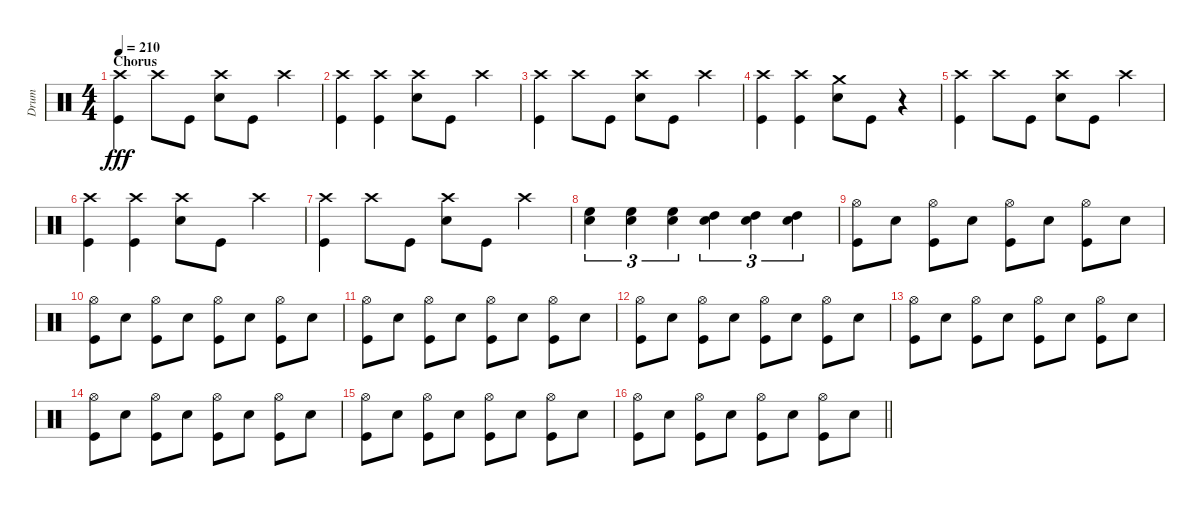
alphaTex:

\track ("Drum" "Drum") {instrument percussion}
\staff
\articulation defaults
\ts (4 4)
\section ("" "Chorus")
\tempo 210
\clef neutral
\ks c
("Crash high (hit)" "Kick (hit)").4{dy fff} "Crash high (hit)".8 "Kick (hit)".8 ("Crash high (hit)" "Snare (hit) 2").8 "Kick (hit)".8 "Crash high (hit)".4 |
("Crash high (hit)" "Kick (hit)").4 ("Crash high (hit)" "Kick (hit)").4 ("Crash high (hit)" "Snare (hit) 2").8 "Kick (hit)".8 "Crash high (hit)".4 |
("Crash high (hit)" "Kick (hit)").4 "Crash high (hit)".8 "Kick (hit)".8 ("Crash high (hit)" "Snare (hit) 2").8 "Kick (hit)".8 "Crash high (hit)".4 |
("Crash high (hit)" "Kick (hit)").4 ("Crash high (hit)" "Kick (hit)").4 ("Crash medium (hit)" "Snare (hit) 2").8 "Kick (hit)".8 r.4 |
("Crash high (hit)" "Kick (hit)").4 "Crash high (hit)".8 "Kick (hit)".8 ("Crash high (hit)" "Snare (hit) 2").8 "Kick (hit)".8 "Crash high (hit)".4 |
("Crash high (hit)" "Kick (hit)").4 ("Crash high (hit)" "Kick (hit)").4 ("Crash high (hit)" "Snare (hit) 2").8 "Kick (hit)".8 "Crash high (hit)".4 |
("Crash high (hit)" "Kick (hit)").4 "Crash high (hit)".8 "Kick (hit)".8 ("Crash high (hit)" "Snare (hit) 2").8 "Kick (hit)".8 "Crash high (hit)".4 |
("High Floor Tom (hit)" "Snare (hit) 2").4{tu (3 2)} ("High Floor Tom (hit)" "Snare (hit) 2").4{tu (3 2)} ("High Floor Tom (hit)" "Snare (hit) 2").4{tu (3 2)} ("High Tom (hit)" "Snare (hit) 2").4{tu (3 2)} ("High Tom (hit)" "Snare (hit) 2").4{tu (3 2)} ("High Tom (hit)" "Snare (hit) 2").4{tu (3 2)} |
("Hi-Hat (open)" "Kick (hit)").8 "Snare (hit) 2".8 ("Hi-Hat (open)" "Kick (hit)").8 "Snare (hit) 2".8 ("Hi-Hat (open)" "Kick (hit)").8 "Snare (hit) 2".8 ("Hi-Hat (open)" "Kick (hit)").8 "Snare (hit) 2".8 |
("Hi-Hat (open)" "Kick (hit)").8 "Snare (hit) 2".8 ("Hi-Hat (open)" "Kick (hit)").8 "Snare (hit) 2".8 ("Hi-Hat (open)" "Kick (hit)").8 "Snare (hit) 2".8 ("Hi-Hat (open)" "Kick (hit)").8 "Snare (hit) 2".8 |
("Hi-Hat (open)" "Kick (hit)").8 "Snare (hit) 2".8 ("Hi-Hat (open)" "Kick (hit)").8 "Snare (hit) 2".8 ("Hi-Hat (open)" "Kick (hit)").8 "Snare (hit) 2".8 ("Hi-Hat (open)" "Kick (hit)").8 "Snare (hit) 2".8 |
("Hi-Hat (open)" "Kick (hit)").8 "Snare (hit) 2".8 ("Hi-Hat (open)" "Kick (hit)").8 "Snare (hit) 2".8 ("Hi-Hat (open)" "Kick (hit)").8 "Snare (hit) 2".8 ("Hi-Hat (open)" "Kick (hit)").8 "Snare (hit) 2".8 |
("Hi-Hat (open)" "Kick (hit)").8 "Snare (hit) 2".8 ("Hi-Hat (open)" "Kick (hit)").8 "Snare (hit) 2".8 ("Hi-Hat (open)" "Kick (hit)").8 "Snare (hit) 2".8 ("Hi-Hat (open)" "Kick (hit)").8 "Snare (hit) 2".8 |
("Hi-Hat (open)" "Kick (hit)").8 "Snare (hit) 2".8 ("Hi-Hat (open)" "Kick (hit)").8 "Snare (hit) 2".8 ("Hi-Hat (open)" "Kick (hit)").8 "Snare (hit) 2".8 ("Hi-Hat (open)" "Kick (hit)").8 "Snare (hit) 2".8 |
("Hi-Hat (open)" "Kick (hit)").8 "Snare (hit) 2".8 ("Hi-Hat (open)" "Kick (hit)").8 "Snare (hit) 2".8 ("Hi-Hat (open)" "Kick (hit)").8 "Snare (hit) 2".8 ("Hi-Hat (open)" "Kick (hit)").8 "Snare (hit) 2".8 |
\barLineRight lightlight
("Hi-Hat (open)" "Kick (hit)").8 "Snare (hit) 2".8 ("Hi-Hat (open)" "Kick (hit)").8 "Snare (hit) 2".8 ("Hi-Hat (open)" "Kick (hit)").8 "Snare (hit) 2".8 ("Hi-Hat (open)" "Kick (hit)").8 "Snare (hit) 2".8
